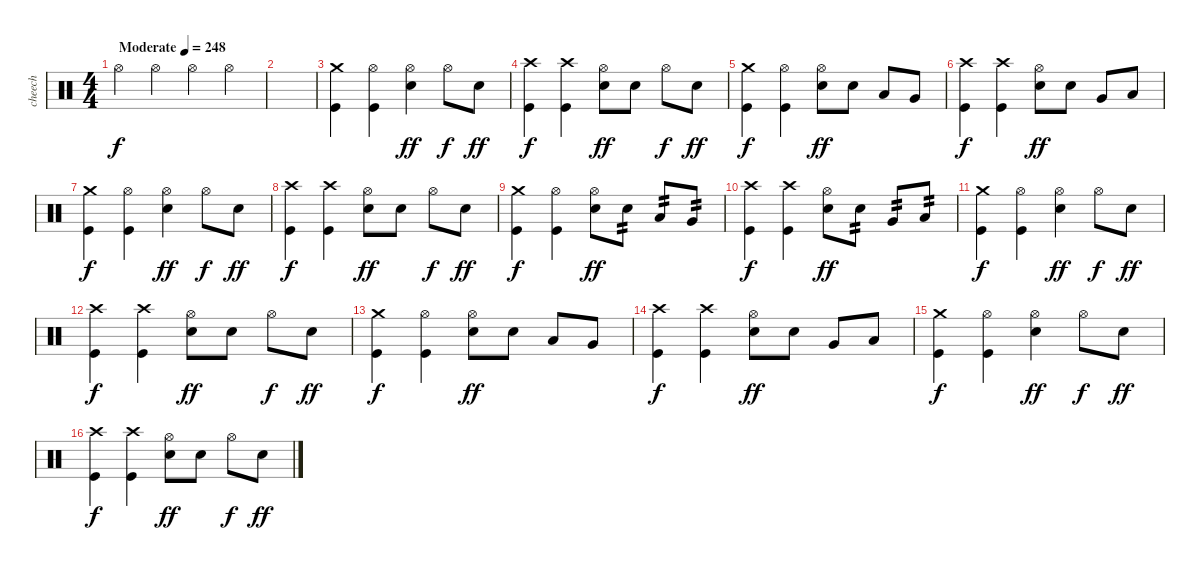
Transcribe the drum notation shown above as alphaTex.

\track ("cheech" "cheech") {instrument percussion}
\staff {score}
\articulation defaults
\ts (4 4)
\tempo (248 "Moderate")
\clef neutral
\ks c "Hi-Hat (open)".4{dy f} "Hi-Hat (open)".4 "Hi-Hat (open)".4 "Hi-Hat (open)".4
|
|
("Crash medium (hit)" "Kick (hit)").4 ("Hi-Hat (open)" "Kick (hit)").4 ("Hi-Hat (open)" "Electric Snare (hit)").4{dy ff} "Hi-Hat (open)".8{dy f} "Electric Snare (hit)".8{dy ff} |
("Crash high (hit)" "Kick (hit)").4{dy f} ("Crash high (hit)" "Kick (hit)").4 ("Hi-Hat (open)" "Electric Snare (hit)").8{dy ff} "Electric Snare (hit)".8 "Hi-Hat (open)".8{dy f} "Electric Snare (hit)".8{dy ff} |
("Crash medium (hit)" "Kick (hit)").4{dy f} ("Hi-Hat (open)" "Kick (hit)").4 ("Hi-Hat (open)" "Electric Snare (hit)").8{dy ff} "Electric Snare (hit)".8 "Low Tom (hit)".8 "Very Low Tom (hit)".8 |
("Crash high (hit)" "Kick (hit)").4{dy f} ("Crash high (hit)" "Kick (hit)").4 ("Hi-Hat (open)" "Electric Snare (hit)").8{dy ff} "Electric Snare (hit)".8 "Very Low Tom (hit)".8 "Low Floor Tom (hit)".8 |
("Crash medium (hit)" "Kick (hit)").4{dy f} ("Hi-Hat (open)" "Kick (hit)").4 ("Hi-Hat (open)" "Electric Snare (hit)").4{dy ff} "Hi-Hat (open)".8{dy f} "Electric Snare (hit)".8{dy ff} |
("Crash high (hit)" "Kick (hit)").4{dy f} ("Crash high (hit)" "Kick (hit)").4 ("Hi-Hat (open)" "Electric Snare (hit)").8{dy ff} "Electric Snare (hit)".8 "Hi-Hat (open)".8{dy f} "Electric Snare (hit)".8{dy ff} |
("Crash medium (hit)" "Kick (hit)").4{dy f} ("Hi-Hat (open)" "Kick (hit)").4 ("Hi-Hat (open)" "Electric Snare (hit)").8{dy ff} "Electric Snare (hit)".8{tp 2} "Low Tom (hit)".8{tp 2} "Very Low Tom (hit)".8{tp 2} |
("Crash high (hit)" "Kick (hit)").4{dy f} ("Crash high (hit)" "Kick (hit)").4 ("Hi-Hat (open)" "Electric Snare (hit)").8{dy ff} "Electric Snare (hit)".8{tp 2} "Very Low Tom (hit)".8{tp 2} "Low Floor Tom (hit)".8{tp 2} |
("Crash medium (hit)" "Kick (hit)").4{dy f} ("Hi-Hat (open)" "Kick (hit)").4 ("Hi-Hat (open)" "Electric Snare (hit)").4{dy ff} "Hi-Hat (open)".8{dy f} "Electric Snare (hit)".8{dy ff} |
("Crash high (hit)" "Kick (hit)").4{dy f} ("Crash high (hit)" "Kick (hit)").4 ("Hi-Hat (open)" "Electric Snare (hit)").8{dy ff} "Electric Snare (hit)".8 "Hi-Hat (open)".8{dy f} "Electric Snare (hit)".8{dy ff} |
("Crash medium (hit)" "Kick (hit)").4{dy f} ("Hi-Hat (open)" "Kick (hit)").4 ("Hi-Hat (open)" "Electric Snare (hit)").8{dy ff} "Electric Snare (hit)".8 "Low Tom (hit)".8 "Very Low Tom (hit)".8 |
("Crash high (hit)" "Kick (hit)").4{dy f} ("Crash high (hit)" "Kick (hit)").4 ("Hi-Hat (open)" "Electric Snare (hit)").8{dy ff} "Electric Snare (hit)".8 "Very Low Tom (hit)".8 "Low Floor Tom (hit)".8 |
("Crash medium (hit)" "Kick (hit)").4{dy f} ("Hi-Hat (open)" "Kick (hit)").4 ("Hi-Hat (open)" "Electric Snare (hit)").4{dy ff} "Hi-Hat (open)".8{dy f} "Electric Snare (hit)".8{dy ff} |
("Crash high (hit)" "Kick (hit)").4{dy f} ("Crash high (hit)" "Kick (hit)").4 ("Hi-Hat (open)" "Electric Snare (hit)").8{dy ff} "Electric Snare (hit)".8 "Hi-Hat (open)".8{dy f} "Electric Snare (hit)".8{dy ff}
